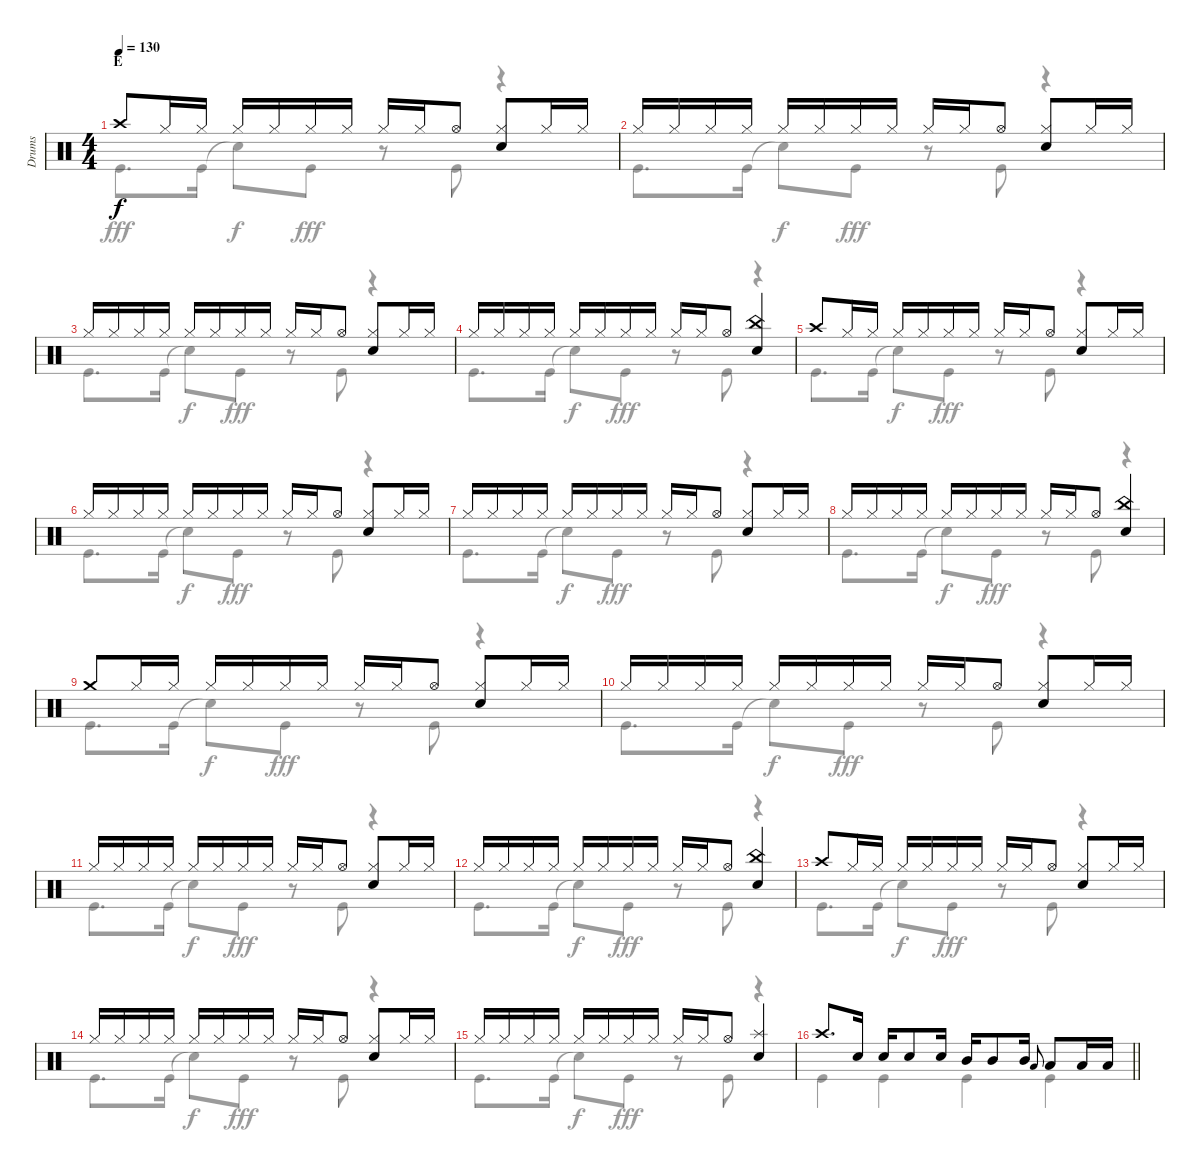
\track ("Drums" "Drums") {instrument percussion}
\staff {score}
\articulation defaults
\voice
\ts (4 4)
\section ("" "E")
\tempo 130
\clef neutral
\ks c "Crash high (hit)".8{dy f} "Hi-Hat (closed)".16 "Hi-Hat (closed)".16 "Hi-Hat (closed)".16 "Hi-Hat (closed)".16 "Hi-Hat (closed)".16 "Hi-Hat (closed)".16 "Hi-Hat (closed)".16 "Hi-Hat (closed)".16 "Hi-Hat (open)".8
("Hi-Hat (closed)" "Snare (hit) 2").8 "Hi-Hat (closed)".16 "Hi-Hat (closed)".16 |
"Hi-Hat (closed)".16 "Hi-Hat (closed)".16 "Hi-Hat (closed)".16 "Hi-Hat (closed)".16 "Hi-Hat (closed)".16 "Hi-Hat (closed)".16 "Hi-Hat (closed)".16 "Hi-Hat (closed)".16 "Hi-Hat (closed)".16 "Hi-Hat (closed)".16 "Hi-Hat (open)".8 ("Hi-Hat (closed)" "Snare (hit) 2").8 "Hi-Hat (closed)".16 "Hi-Hat (closed)".16 |
"Hi-Hat (closed)".16 "Hi-Hat (closed)".16 "Hi-Hat (closed)".16 "Hi-Hat (closed)".16 "Hi-Hat (closed)".16 "Hi-Hat (closed)".16 "Hi-Hat (closed)".16 "Hi-Hat (closed)".16 "Hi-Hat (closed)".16 "Hi-Hat (closed)".16 "Hi-Hat (open)".8 ("Hi-Hat (closed)" "Snare (hit) 2").8 "Hi-Hat (closed)".16 "Hi-Hat (closed)".16 |
"Hi-Hat (closed)".16 "Hi-Hat (closed)".16 "Hi-Hat (closed)".16 "Hi-Hat (closed)".16 "Hi-Hat (closed)".16 "Hi-Hat (closed)".16 "Hi-Hat (closed)".16 "Hi-Hat (closed)".16 "Hi-Hat (closed)".16 "Hi-Hat (closed)".16 "Hi-Hat (open)".8 ("China (hit)" "Snare (hit) 2").4 |
"Crash high (hit)".8 "Hi-Hat (closed)".16 "Hi-Hat (closed)".16 "Hi-Hat (closed)".16 "Hi-Hat (closed)".16 "Hi-Hat (closed)".16 "Hi-Hat (closed)".16 "Hi-Hat (closed)".16 "Hi-Hat (closed)".16 "Hi-Hat (open)".8 ("Hi-Hat (closed)" "Snare (hit) 2").8 "Hi-Hat (closed)".16 "Hi-Hat (closed)".16 |
"Hi-Hat (closed)".16 "Hi-Hat (closed)".16 "Hi-Hat (closed)".16 "Hi-Hat (closed)".16 "Hi-Hat (closed)".16 "Hi-Hat (closed)".16 "Hi-Hat (closed)".16 "Hi-Hat (closed)".16 "Hi-Hat (closed)".16 "Hi-Hat (closed)".16 "Hi-Hat (open)".8 ("Hi-Hat (closed)" "Snare (hit) 2").8 "Hi-Hat (closed)".16 "Hi-Hat (closed)".16 |
"Hi-Hat (closed)".16 "Hi-Hat (closed)".16 "Hi-Hat (closed)".16 "Hi-Hat (closed)".16 "Hi-Hat (closed)".16 "Hi-Hat (closed)".16 "Hi-Hat (closed)".16 "Hi-Hat (closed)".16 "Hi-Hat (closed)".16 "Hi-Hat (closed)".16 "Hi-Hat (open)".8 ("Hi-Hat (closed)" "Snare (hit) 2").8 "Hi-Hat (closed)".16 "Hi-Hat (closed)".16 |
"Hi-Hat (closed)".16 "Hi-Hat (closed)".16 "Hi-Hat (closed)".16 "Hi-Hat (closed)".16 "Hi-Hat (closed)".16 "Hi-Hat (closed)".16 "Hi-Hat (closed)".16 "Hi-Hat (closed)".16 "Hi-Hat (closed)".16 "Hi-Hat (closed)".16 "Hi-Hat (open)".8 ("China (hit)" "Snare (hit) 2").4 |
"Crash medium (hit)".8 "Hi-Hat (closed)".16 "Hi-Hat (closed)".16 "Hi-Hat (closed)".16 "Hi-Hat (closed)".16 "Hi-Hat (closed)".16 "Hi-Hat (closed)".16 "Hi-Hat (closed)".16 "Hi-Hat (closed)".16 "Hi-Hat (open)".8 ("Hi-Hat (closed)" "Snare (hit) 2").8 "Hi-Hat (closed)".16 "Hi-Hat (closed)".16 |
"Hi-Hat (closed)".16 "Hi-Hat (closed)".16 "Hi-Hat (closed)".16 "Hi-Hat (closed)".16 "Hi-Hat (closed)".16 "Hi-Hat (closed)".16 "Hi-Hat (closed)".16 "Hi-Hat (closed)".16 "Hi-Hat (closed)".16 "Hi-Hat (closed)".16 "Hi-Hat (open)".8 ("Hi-Hat (closed)" "Snare (hit) 2").8 "Hi-Hat (closed)".16 "Hi-Hat (closed)".16 |
"Hi-Hat (closed)".16 "Hi-Hat (closed)".16 "Hi-Hat (closed)".16 "Hi-Hat (closed)".16 "Hi-Hat (closed)".16 "Hi-Hat (closed)".16 "Hi-Hat (closed)".16 "Hi-Hat (closed)".16 "Hi-Hat (closed)".16 "Hi-Hat (closed)".16 "Hi-Hat (open)".8 ("Hi-Hat (closed)" "Snare (hit) 2").8 "Hi-Hat (closed)".16 "Hi-Hat (closed)".16 |
"Hi-Hat (closed)".16 "Hi-Hat (closed)".16 "Hi-Hat (closed)".16 "Hi-Hat (closed)".16 "Hi-Hat (closed)".16 "Hi-Hat (closed)".16 "Hi-Hat (closed)".16 "Hi-Hat (closed)".16 "Hi-Hat (closed)".16 "Hi-Hat (closed)".16 "Hi-Hat (open)".8 ("China (hit)" "Snare (hit) 2").4 |
"Crash high (hit)".8 "Hi-Hat (closed)".16 "Hi-Hat (closed)".16 "Hi-Hat (closed)".16 "Hi-Hat (closed)".16 "Hi-Hat (closed)".16 "Hi-Hat (closed)".16 "Hi-Hat (closed)".16 "Hi-Hat (closed)".16 "Hi-Hat (open)".8 ("Hi-Hat (closed)" "Snare (hit) 2").8 "Hi-Hat (closed)".16 "Hi-Hat (closed)".16 |
"Hi-Hat (closed)".16 "Hi-Hat (closed)".16 "Hi-Hat (closed)".16 "Hi-Hat (closed)".16 "Hi-Hat (closed)".16 "Hi-Hat (closed)".16 "Hi-Hat (closed)".16 "Hi-Hat (closed)".16 "Hi-Hat (closed)".16 "Hi-Hat (closed)".16 "Hi-Hat (open)".8 ("Hi-Hat (closed)" "Snare (hit) 2").8 "Hi-Hat (closed)".16 "Hi-Hat (closed)".16 |
"Hi-Hat (closed)".16 "Hi-Hat (closed)".16 "Hi-Hat (closed)".16 "Hi-Hat (closed)".16 "Hi-Hat (closed)".16 "Hi-Hat (closed)".16 "Hi-Hat (closed)".16 "Hi-Hat (closed)".16 "Hi-Hat (closed)".16 "Hi-Hat (closed)".16 "Hi-Hat (open)".8 ("Splash (hit)" "Snare (hit) 2").4 |
\barLineRight lightlight "Crash high (hit)".8{d} "Snare (hit) 2".16 "Snare (hit) 2".16 "Snare (hit) 2".8 "Snare (hit) 2".16 "Mid Tom (hit)".16 "Mid Tom (hit)".8 "Mid Tom (hit)".16 "Low Tom (hit)".8{gr onbeat} "Low Tom (hit)".8 "Low Tom (hit)".16 "Low Tom (hit)".16
\voice
\clef neutral
\ottava regular
\simile none
\ks c "Kick (hit)".8{d dy fff} "Kick (hit)".16 "Snare (hit)"{t}.8{dy f} "Kick (hit)".8{dy fff}
r.8 "Kick (hit)".8 r.4 |
"Kick (hit)".8{d} "Kick (hit)".16 "Snare (hit)"{t}.8{dy f} "Kick (hit)".8{dy fff} r.8 "Kick (hit)".8 r.4 |
"Kick (hit)".8{d} "Kick (hit)".16 "Snare (hit)"{t}.8{dy f} "Kick (hit)".8{dy fff} r.8 "Kick (hit)".8 r.4 |
"Kick (hit)".8{d} "Kick (hit)".16 "Snare (hit)"{t}.8{dy f} "Kick (hit)".8{dy fff} r.8 "Kick (hit)".8 r.4 |
"Kick (hit)".8{d} "Kick (hit)".16 "Snare (hit)"{t}.8{dy f} "Kick (hit)".8{dy fff} r.8 "Kick (hit)".8 r.4 |
"Kick (hit)".8{d} "Kick (hit)".16 "Snare (hit)"{t}.8{dy f} "Kick (hit)".8{dy fff} r.8 "Kick (hit)".8 r.4 |
"Kick (hit)".8{d} "Kick (hit)".16 "Snare (hit)"{t}.8{dy f} "Kick (hit)".8{dy fff} r.8 "Kick (hit)".8 r.4 |
"Kick (hit)".8{d} "Kick (hit)".16 "Snare (hit)"{t}.8{dy f} "Kick (hit)".8{dy fff} r.8 "Kick (hit)".8 r.4 |
"Kick (hit)".8{d} "Kick (hit)".16 "Snare (hit)"{t}.8{dy f} "Kick (hit)".8{dy fff} r.8 "Kick (hit)".8 r.4 |
"Kick (hit)".8{d} "Kick (hit)".16 "Snare (hit)"{t}.8{dy f} "Kick (hit)".8{dy fff} r.8 "Kick (hit)".8 r.4 |
"Kick (hit)".8{d} "Kick (hit)".16 "Snare (hit)"{t}.8{dy f} "Kick (hit)".8{dy fff} r.8 "Kick (hit)".8 r.4 |
"Kick (hit)".8{d} "Kick (hit)".16 "Snare (hit)"{t}.8{dy f} "Kick (hit)".8{dy fff} r.8 "Kick (hit)".8 r.4 |
"Kick (hit)".8{d} "Kick (hit)".16 "Snare (hit)"{t}.8{dy f} "Kick (hit)".8{dy fff} r.8 "Kick (hit)".8 r.4 |
"Kick (hit)".8{d} "Kick (hit)".16 "Snare (hit)"{t}.8{dy f} "Kick (hit)".8{dy fff} r.8 "Kick (hit)".8 r.4 |
"Kick (hit)".8{d} "Kick (hit)".16 "Snare (hit)"{t}.8{dy f} "Kick (hit)".8{dy fff} r.8 "Kick (hit)".8 r.4 |
\barLineRight lightlight "Kick (hit)".4 "Kick (hit)".4 "Kick (hit)".4 "Kick (hit)".4
